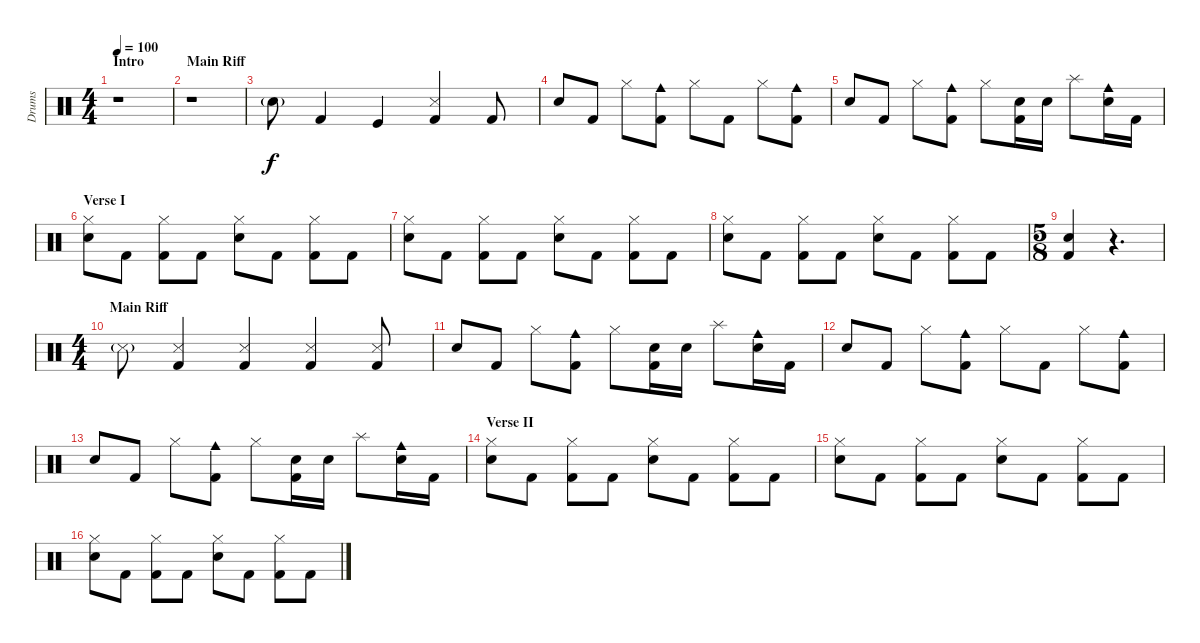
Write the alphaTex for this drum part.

\track ("Drums" "Drums") {instrument percussion}
\staff {score}
\articulation defaults
\ts (4 4)
\section ("" "Intro")
\tempo 100
\clef neutral
\ks c
r.1{dy f} |
\section ("" "Main Riff")
r.1 |
"Snare (hit) 2"{g}.8 "Kick (hit) 2".4 "Kick (hit)".4 ("Snare (side stick) 3" "Kick (hit) 2").4 "Kick (hit) 2".8 |
"Snare (hit) 2".8 "Kick (hit) 2".8 "Hi-Hat (closed)".8 ("Cowbell medium (hit)" "Kick (hit) 2").8 "Hi-Hat (closed)".8 "Kick (hit) 2".8 "Hi-Hat (closed)".8 ("Cowbell medium (hit)" "Kick (hit) 2").8 |
"Snare (hit) 2".8 "Kick (hit) 2".8 "Hi-Hat (closed)".8 ("Cowbell medium (hit)" "Kick (hit) 2").8 "Hi-Hat (closed)".8 ("Snare (hit) 2" "Kick (hit) 2").16 "Snare (hit) 2".16 "Splash (hit)".8 ("Cowbell medium (hit)" "Snare (hit) 2").16 "Kick (hit) 2".16 |
\section ("" "Verse I")
("Hi-Hat (closed)" "Snare (hit) 2").8 "Kick (hit) 2".8 ("Hi-Hat (closed)" "Kick (hit) 2").8 "Kick (hit) 2".8 ("Hi-Hat (closed)" "Snare (hit) 2").8 "Kick (hit) 2".8 ("Hi-Hat (closed)" "Kick (hit) 2").8 "Kick (hit) 2".8 |
("Hi-Hat (closed)" "Snare (hit) 2").8 "Kick (hit) 2".8 ("Hi-Hat (closed)" "Kick (hit) 2").8 "Kick (hit) 2".8 ("Hi-Hat (closed)" "Snare (hit) 2").8 "Kick (hit) 2".8 ("Hi-Hat (closed)" "Kick (hit) 2").8 "Kick (hit) 2".8 |
("Hi-Hat (closed)" "Snare (hit) 2").8 "Kick (hit) 2".8 ("Hi-Hat (closed)" "Kick (hit) 2").8 "Kick (hit) 2".8 ("Hi-Hat (closed)" "Snare (hit) 2").8 "Kick (hit) 2".8 ("Hi-Hat (closed)" "Kick (hit) 2").8 "Kick (hit) 2".8 |
\ts (5 8)
("Snare (hit) 2" "Kick (hit) 2").4 r.4{d} |
\ts (4 4)
\section ("" "Main Riff")
"Snare (side stick) 3"{g}.8 ("Snare (side stick) 3" "Kick (hit) 2").4 ("Snare (side stick) 3" "Kick (hit) 2").4 ("Snare (side stick) 3" "Kick (hit) 2").4 ("Snare (side stick) 3" "Kick (hit) 2").8 |
"Snare (hit) 2".8 "Kick (hit) 2".8 "Hi-Hat (closed)".8 ("Cowbell medium (hit)" "Kick (hit) 2").8 "Hi-Hat (closed)".8 ("Snare (hit) 2" "Kick (hit) 2").16 "Snare (hit) 2".16 "Splash (hit)".8 ("Cowbell medium (hit)" "Snare (hit) 2").16 "Kick (hit) 2".16 |
"Snare (hit) 2".8 "Kick (hit) 2".8 "Hi-Hat (closed)".8 ("Cowbell medium (hit)" "Kick (hit) 2").8 "Hi-Hat (closed)".8 "Kick (hit) 2".8 "Hi-Hat (closed)".8 ("Cowbell medium (hit)" "Kick (hit) 2").8 |
"Snare (hit) 2".8 "Kick (hit) 2".8 "Hi-Hat (closed)".8 ("Cowbell medium (hit)" "Kick (hit) 2").8 "Hi-Hat (closed)".8 ("Snare (hit) 2" "Kick (hit) 2").16 "Snare (hit) 2".16 "Splash (hit)".8 ("Cowbell medium (hit)" "Snare (hit) 2").16 "Kick (hit) 2".16 |
\section ("" "Verse II")
("Hi-Hat (closed)" "Snare (hit) 2").8 "Kick (hit) 2".8 ("Hi-Hat (closed)" "Kick (hit) 2").8 "Kick (hit) 2".8 ("Hi-Hat (closed)" "Snare (hit) 2").8 "Kick (hit) 2".8 ("Hi-Hat (closed)" "Kick (hit) 2").8 "Kick (hit) 2".8 |
("Hi-Hat (closed)" "Snare (hit) 2").8 "Kick (hit) 2".8 ("Hi-Hat (closed)" "Kick (hit) 2").8 "Kick (hit) 2".8 ("Hi-Hat (closed)" "Snare (hit) 2").8 "Kick (hit) 2".8 ("Hi-Hat (closed)" "Kick (hit) 2").8 "Kick (hit) 2".8 |
("Hi-Hat (closed)" "Snare (hit) 2").8 "Kick (hit) 2".8 ("Hi-Hat (closed)" "Kick (hit) 2").8 "Kick (hit) 2".8 ("Hi-Hat (closed)" "Snare (hit) 2").8 "Kick (hit) 2".8 ("Hi-Hat (closed)" "Kick (hit) 2").8 "Kick (hit) 2".8
